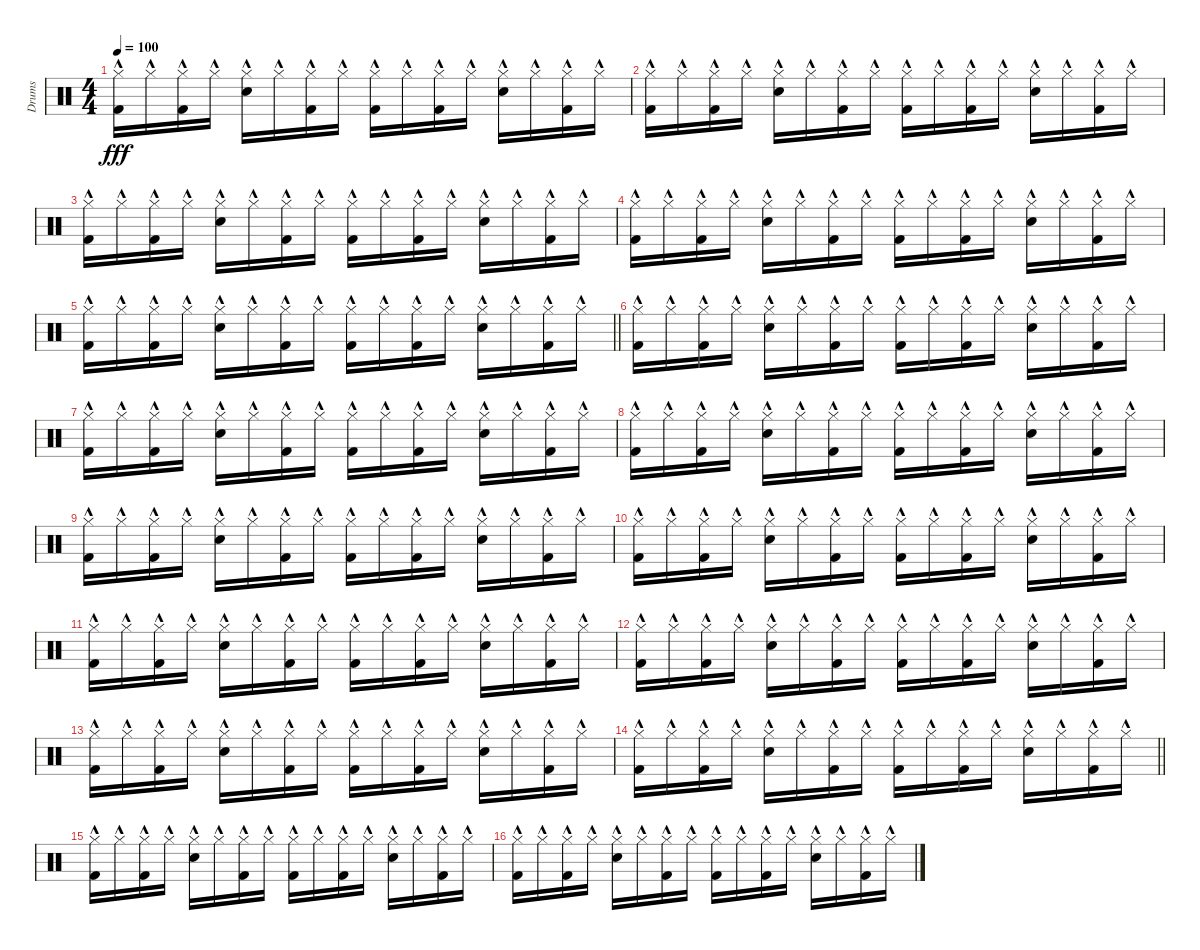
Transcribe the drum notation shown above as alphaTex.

\track ("Drums" "Drums") {instrument percussion}
\staff {score}
\articulation defaults
\ts (4 4)
\tempo 100
\clef neutral
\ks c
("Hi-Hat (closed)"{hac} "Kick (hit) 2").16{dy fff} "Hi-Hat (closed)"{hac}.16 ("Hi-Hat (closed)"{hac} "Kick (hit) 2").16 "Hi-Hat (closed)"{hac}.16 ("Hi-Hat (closed)"{hac} "Electric Snare (hit)"{hac}).16 "Hi-Hat (closed)"{hac}.16 ("Hi-Hat (closed)"{hac} "Kick (hit) 2").16 "Hi-Hat (closed)"{hac}.16 ("Hi-Hat (closed)"{hac} "Kick (hit) 2").16 "Hi-Hat (closed)"{hac}.16 ("Hi-Hat (closed)"{hac} "Kick (hit) 2").16 "Hi-Hat (closed)"{hac}.16 ("Hi-Hat (closed)"{hac} "Electric Snare (hit)"{hac}).16 "Hi-Hat (closed)"{hac}.16 ("Hi-Hat (closed)"{hac} "Kick (hit) 2").16 "Hi-Hat (closed)"{hac}.16 |
("Hi-Hat (closed)"{hac} "Kick (hit) 2").16 "Hi-Hat (closed)"{hac}.16 ("Hi-Hat (closed)"{hac} "Kick (hit) 2").16 "Hi-Hat (closed)"{hac}.16 ("Hi-Hat (closed)"{hac} "Electric Snare (hit)"{hac}).16 "Hi-Hat (closed)"{hac}.16 ("Hi-Hat (closed)"{hac} "Kick (hit) 2").16 "Hi-Hat (closed)"{hac}.16 ("Hi-Hat (closed)"{hac} "Kick (hit) 2").16 "Hi-Hat (closed)"{hac}.16 ("Hi-Hat (closed)"{hac} "Kick (hit) 2").16 "Hi-Hat (closed)"{hac}.16 ("Hi-Hat (closed)"{hac} "Electric Snare (hit)"{hac}).16 "Hi-Hat (closed)"{hac}.16 ("Hi-Hat (closed)"{hac} "Kick (hit) 2").16 "Hi-Hat (closed)"{hac}.16 |
("Hi-Hat (closed)"{hac} "Kick (hit) 2").16 "Hi-Hat (closed)"{hac}.16 ("Hi-Hat (closed)"{hac} "Kick (hit) 2").16 "Hi-Hat (closed)"{hac}.16 ("Hi-Hat (closed)"{hac} "Electric Snare (hit)"{hac}).16 "Hi-Hat (closed)"{hac}.16 ("Hi-Hat (closed)"{hac} "Kick (hit) 2").16 "Hi-Hat (closed)"{hac}.16 ("Hi-Hat (closed)"{hac} "Kick (hit) 2").16 "Hi-Hat (closed)"{hac}.16 ("Hi-Hat (closed)"{hac} "Kick (hit) 2").16 "Hi-Hat (closed)"{hac}.16 ("Hi-Hat (closed)"{hac} "Electric Snare (hit)"{hac}).16 "Hi-Hat (closed)"{hac}.16 ("Hi-Hat (closed)"{hac} "Kick (hit) 2").16 "Hi-Hat (closed)"{hac}.16 |
("Hi-Hat (closed)"{hac} "Kick (hit) 2").16 "Hi-Hat (closed)"{hac}.16 ("Hi-Hat (closed)"{hac} "Kick (hit) 2").16 "Hi-Hat (closed)"{hac}.16 ("Hi-Hat (closed)"{hac} "Electric Snare (hit)"{hac}).16 "Hi-Hat (closed)"{hac}.16 ("Hi-Hat (closed)"{hac} "Kick (hit) 2").16 "Hi-Hat (closed)"{hac}.16 ("Hi-Hat (closed)"{hac} "Kick (hit) 2").16 "Hi-Hat (closed)"{hac}.16 ("Hi-Hat (closed)"{hac} "Kick (hit) 2").16 "Hi-Hat (closed)"{hac}.16 ("Hi-Hat (closed)"{hac} "Electric Snare (hit)"{hac}).16 "Hi-Hat (closed)"{hac}.16 ("Hi-Hat (closed)"{hac} "Kick (hit) 2").16 "Hi-Hat (closed)"{hac}.16 |
\barLineRight lightlight
("Hi-Hat (closed)"{hac} "Kick (hit) 2").16 "Hi-Hat (closed)"{hac}.16 ("Hi-Hat (closed)"{hac} "Kick (hit) 2").16 "Hi-Hat (closed)"{hac}.16 ("Hi-Hat (closed)"{hac} "Electric Snare (hit)"{hac}).16 "Hi-Hat (closed)"{hac}.16 ("Hi-Hat (closed)"{hac} "Kick (hit) 2").16 "Hi-Hat (closed)"{hac}.16 ("Hi-Hat (closed)"{hac} "Kick (hit) 2").16 "Hi-Hat (closed)"{hac}.16 ("Hi-Hat (closed)"{hac} "Kick (hit) 2").16 "Hi-Hat (closed)"{hac}.16 ("Hi-Hat (closed)"{hac} "Electric Snare (hit)"{hac}).16 "Hi-Hat (closed)"{hac}.16 ("Hi-Hat (closed)"{hac} "Kick (hit) 2").16 "Hi-Hat (closed)"{hac}.16 |
("Hi-Hat (closed)"{hac} "Kick (hit) 2").16 "Hi-Hat (closed)"{hac}.16 ("Hi-Hat (closed)"{hac} "Kick (hit) 2").16 "Hi-Hat (closed)"{hac}.16 ("Hi-Hat (closed)"{hac} "Electric Snare (hit)"{hac}).16 "Hi-Hat (closed)"{hac}.16 ("Hi-Hat (closed)"{hac} "Kick (hit) 2").16 "Hi-Hat (closed)"{hac}.16 ("Hi-Hat (closed)"{hac} "Kick (hit) 2").16 "Hi-Hat (closed)"{hac}.16 ("Hi-Hat (closed)"{hac} "Kick (hit) 2").16 "Hi-Hat (closed)"{hac}.16 ("Hi-Hat (closed)"{hac} "Electric Snare (hit)"{hac}).16 "Hi-Hat (closed)"{hac}.16 ("Hi-Hat (closed)"{hac} "Kick (hit) 2").16 "Hi-Hat (closed)"{hac}.16 |
("Hi-Hat (closed)"{hac} "Kick (hit) 2").16 "Hi-Hat (closed)"{hac}.16 ("Hi-Hat (closed)"{hac} "Kick (hit) 2").16 "Hi-Hat (closed)"{hac}.16 ("Hi-Hat (closed)"{hac} "Electric Snare (hit)"{hac}).16 "Hi-Hat (closed)"{hac}.16 ("Hi-Hat (closed)"{hac} "Kick (hit) 2").16 "Hi-Hat (closed)"{hac}.16 ("Hi-Hat (closed)"{hac} "Kick (hit) 2").16 "Hi-Hat (closed)"{hac}.16 ("Hi-Hat (closed)"{hac} "Kick (hit) 2").16 "Hi-Hat (closed)"{hac}.16 ("Hi-Hat (closed)"{hac} "Electric Snare (hit)"{hac}).16 "Hi-Hat (closed)"{hac}.16 ("Hi-Hat (closed)"{hac} "Kick (hit) 2").16 "Hi-Hat (closed)"{hac}.16 |
("Hi-Hat (closed)"{hac} "Kick (hit) 2").16 "Hi-Hat (closed)"{hac}.16 ("Hi-Hat (closed)"{hac} "Kick (hit) 2").16 "Hi-Hat (closed)"{hac}.16 ("Hi-Hat (closed)"{hac} "Electric Snare (hit)"{hac}).16 "Hi-Hat (closed)"{hac}.16 ("Hi-Hat (closed)"{hac} "Kick (hit) 2").16 "Hi-Hat (closed)"{hac}.16 ("Hi-Hat (closed)"{hac} "Kick (hit) 2").16 "Hi-Hat (closed)"{hac}.16 ("Hi-Hat (closed)"{hac} "Kick (hit) 2").16 "Hi-Hat (closed)"{hac}.16 ("Hi-Hat (closed)"{hac} "Electric Snare (hit)"{hac}).16 "Hi-Hat (closed)"{hac}.16 ("Hi-Hat (closed)"{hac} "Kick (hit) 2").16 "Hi-Hat (closed)"{hac}.16 |
("Hi-Hat (closed)"{hac} "Kick (hit) 2").16 "Hi-Hat (closed)"{hac}.16 ("Hi-Hat (closed)"{hac} "Kick (hit) 2").16 "Hi-Hat (closed)"{hac}.16 ("Hi-Hat (closed)"{hac} "Electric Snare (hit)"{hac}).16 "Hi-Hat (closed)"{hac}.16 ("Hi-Hat (closed)"{hac} "Kick (hit) 2").16 "Hi-Hat (closed)"{hac}.16 ("Hi-Hat (closed)"{hac} "Kick (hit) 2").16 "Hi-Hat (closed)"{hac}.16 ("Hi-Hat (closed)"{hac} "Kick (hit) 2").16 "Hi-Hat (closed)"{hac}.16 ("Hi-Hat (closed)"{hac} "Electric Snare (hit)"{hac}).16 "Hi-Hat (closed)"{hac}.16 ("Hi-Hat (closed)"{hac} "Kick (hit) 2").16 "Hi-Hat (closed)"{hac}.16 |
("Hi-Hat (closed)"{hac} "Kick (hit) 2").16 "Hi-Hat (closed)"{hac}.16 ("Hi-Hat (closed)"{hac} "Kick (hit) 2").16 "Hi-Hat (closed)"{hac}.16 ("Hi-Hat (closed)"{hac} "Electric Snare (hit)"{hac}).16 "Hi-Hat (closed)"{hac}.16 ("Hi-Hat (closed)"{hac} "Kick (hit) 2").16 "Hi-Hat (closed)"{hac}.16 ("Hi-Hat (closed)"{hac} "Kick (hit) 2").16 "Hi-Hat (closed)"{hac}.16 ("Hi-Hat (closed)"{hac} "Kick (hit) 2").16 "Hi-Hat (closed)"{hac}.16 ("Hi-Hat (closed)"{hac} "Electric Snare (hit)"{hac}).16 "Hi-Hat (closed)"{hac}.16 ("Hi-Hat (closed)"{hac} "Kick (hit) 2").16 "Hi-Hat (closed)"{hac}.16 |
("Hi-Hat (closed)"{hac} "Kick (hit) 2").16 "Hi-Hat (closed)"{hac}.16 ("Hi-Hat (closed)"{hac} "Kick (hit) 2").16 "Hi-Hat (closed)"{hac}.16 ("Hi-Hat (closed)"{hac} "Electric Snare (hit)"{hac}).16 "Hi-Hat (closed)"{hac}.16 ("Hi-Hat (closed)"{hac} "Kick (hit) 2").16 "Hi-Hat (closed)"{hac}.16 ("Hi-Hat (closed)"{hac} "Kick (hit) 2").16 "Hi-Hat (closed)"{hac}.16 ("Hi-Hat (closed)"{hac} "Kick (hit) 2").16 "Hi-Hat (closed)"{hac}.16 ("Hi-Hat (closed)"{hac} "Electric Snare (hit)"{hac}).16 "Hi-Hat (closed)"{hac}.16 ("Hi-Hat (closed)"{hac} "Kick (hit) 2").16 "Hi-Hat (closed)"{hac}.16 |
("Hi-Hat (closed)"{hac} "Kick (hit) 2").16 "Hi-Hat (closed)"{hac}.16 ("Hi-Hat (closed)"{hac} "Kick (hit) 2").16 "Hi-Hat (closed)"{hac}.16 ("Hi-Hat (closed)"{hac} "Electric Snare (hit)"{hac}).16 "Hi-Hat (closed)"{hac}.16 ("Hi-Hat (closed)"{hac} "Kick (hit) 2").16 "Hi-Hat (closed)"{hac}.16 ("Hi-Hat (closed)"{hac} "Kick (hit) 2").16 "Hi-Hat (closed)"{hac}.16 ("Hi-Hat (closed)"{hac} "Kick (hit) 2").16 "Hi-Hat (closed)"{hac}.16 ("Hi-Hat (closed)"{hac} "Electric Snare (hit)"{hac}).16 "Hi-Hat (closed)"{hac}.16 ("Hi-Hat (closed)"{hac} "Kick (hit) 2").16 "Hi-Hat (closed)"{hac}.16 |
("Hi-Hat (closed)"{hac} "Kick (hit) 2").16 "Hi-Hat (closed)"{hac}.16 ("Hi-Hat (closed)"{hac} "Kick (hit) 2").16 "Hi-Hat (closed)"{hac}.16 ("Hi-Hat (closed)"{hac} "Electric Snare (hit)"{hac}).16 "Hi-Hat (closed)"{hac}.16 ("Hi-Hat (closed)"{hac} "Kick (hit) 2").16 "Hi-Hat (closed)"{hac}.16 ("Hi-Hat (closed)"{hac} "Kick (hit) 2").16 "Hi-Hat (closed)"{hac}.16 ("Hi-Hat (closed)"{hac} "Kick (hit) 2").16 "Hi-Hat (closed)"{hac}.16 ("Hi-Hat (closed)"{hac} "Electric Snare (hit)"{hac}).16 "Hi-Hat (closed)"{hac}.16 ("Hi-Hat (closed)"{hac} "Kick (hit) 2").16 "Hi-Hat (closed)"{hac}.16 |
\barLineRight lightlight
("Hi-Hat (closed)"{hac} "Kick (hit) 2").16 "Hi-Hat (closed)"{hac}.16 ("Hi-Hat (closed)"{hac} "Kick (hit) 2").16 "Hi-Hat (closed)"{hac}.16 ("Hi-Hat (closed)"{hac} "Electric Snare (hit)"{hac}).16 "Hi-Hat (closed)"{hac}.16 ("Hi-Hat (closed)"{hac} "Kick (hit) 2").16 "Hi-Hat (closed)"{hac}.16 ("Hi-Hat (closed)"{hac} "Kick (hit) 2").16 "Hi-Hat (closed)"{hac}.16 ("Hi-Hat (closed)"{hac} "Kick (hit) 2").16 "Hi-Hat (closed)"{hac}.16 ("Hi-Hat (closed)"{hac} "Electric Snare (hit)"{hac}).16 "Hi-Hat (closed)"{hac}.16 ("Hi-Hat (closed)"{hac} "Kick (hit) 2").16 "Hi-Hat (closed)"{hac}.16 |
("Hi-Hat (closed)"{hac} "Kick (hit) 2").16 "Hi-Hat (closed)"{hac}.16 ("Hi-Hat (closed)"{hac} "Kick (hit) 2").16 "Hi-Hat (closed)"{hac}.16 ("Hi-Hat (closed)"{hac} "Electric Snare (hit)"{hac}).16 "Hi-Hat (closed)"{hac}.16 ("Hi-Hat (closed)"{hac} "Kick (hit) 2").16 "Hi-Hat (closed)"{hac}.16 ("Hi-Hat (closed)"{hac} "Kick (hit) 2").16 "Hi-Hat (closed)"{hac}.16 ("Hi-Hat (closed)"{hac} "Kick (hit) 2").16 "Hi-Hat (closed)"{hac}.16 ("Hi-Hat (closed)"{hac} "Electric Snare (hit)"{hac}).16 "Hi-Hat (closed)"{hac}.16 ("Hi-Hat (closed)"{hac} "Kick (hit) 2").16 "Hi-Hat (closed)"{hac}.16 |
("Hi-Hat (closed)"{hac} "Kick (hit) 2").16 "Hi-Hat (closed)"{hac}.16 ("Hi-Hat (closed)"{hac} "Kick (hit) 2").16 "Hi-Hat (closed)"{hac}.16 ("Hi-Hat (closed)"{hac} "Electric Snare (hit)"{hac}).16 "Hi-Hat (closed)"{hac}.16 ("Hi-Hat (closed)"{hac} "Kick (hit) 2").16 "Hi-Hat (closed)"{hac}.16 ("Hi-Hat (closed)"{hac} "Kick (hit) 2").16 "Hi-Hat (closed)"{hac}.16 ("Hi-Hat (closed)"{hac} "Kick (hit) 2").16 "Hi-Hat (closed)"{hac}.16 ("Hi-Hat (closed)"{hac} "Electric Snare (hit)"{hac}).16 "Hi-Hat (closed)"{hac}.16 ("Hi-Hat (closed)"{hac} "Kick (hit) 2").16 "Hi-Hat (closed)"{hac}.16
